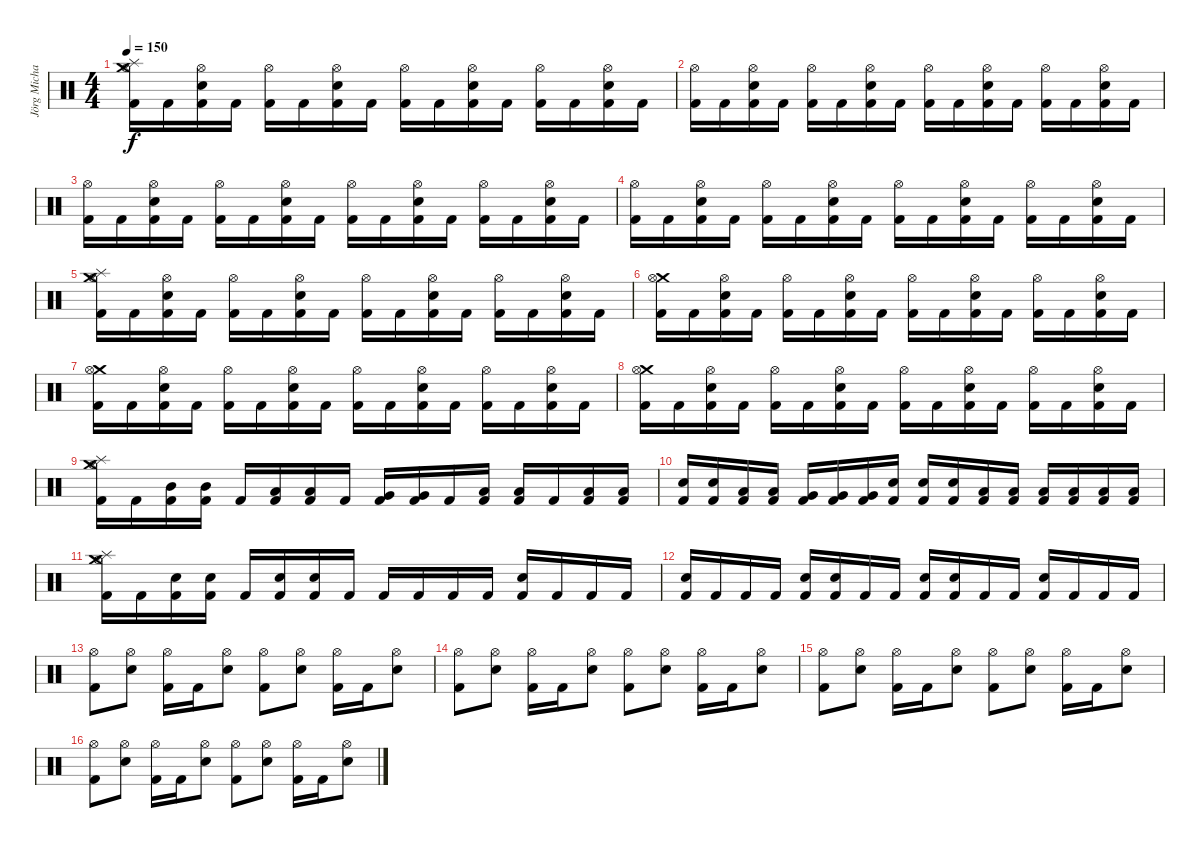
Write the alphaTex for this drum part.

\track ("Jörg Michael (Drums)" "Jörg Micha") {instrument percussion}
\staff {score}
\articulation defaults
\ts (4 4)
\tempo 150
\clef neutral
\ks c
("Hi-Hat (open)" "Splash (hit)" "Crash medium (hit)" "Kick (hit) 2").16{dy f} "Kick (hit) 2".16 ("Hi-Hat (open)" "Electric Snare (hit)" "Kick (hit) 2").16 "Kick (hit) 2".16 ("Hi-Hat (open)" "Kick (hit) 2").16 "Kick (hit) 2".16 ("Hi-Hat (open)" "Electric Snare (hit)" "Kick (hit) 2").16 "Kick (hit) 2".16 ("Hi-Hat (open)" "Kick (hit) 2").16 "Kick (hit) 2".16 ("Hi-Hat (open)" "Electric Snare (hit)" "Kick (hit) 2").16 "Kick (hit) 2".16 ("Hi-Hat (open)" "Kick (hit) 2").16 "Kick (hit) 2".16 ("Hi-Hat (open)" "Electric Snare (hit)" "Kick (hit) 2").16 "Kick (hit) 2".16 |
("Hi-Hat (open)" "Kick (hit) 2").16 "Kick (hit) 2".16 ("Hi-Hat (open)" "Electric Snare (hit)" "Kick (hit) 2").16 "Kick (hit) 2".16 ("Hi-Hat (open)" "Kick (hit) 2").16 "Kick (hit) 2".16 ("Hi-Hat (open)" "Electric Snare (hit)" "Kick (hit) 2").16 "Kick (hit) 2".16 ("Hi-Hat (open)" "Kick (hit) 2").16 "Kick (hit) 2".16 ("Hi-Hat (open)" "Electric Snare (hit)" "Kick (hit) 2").16 "Kick (hit) 2".16 ("Hi-Hat (open)" "Kick (hit) 2").16 "Kick (hit) 2".16 ("Hi-Hat (open)" "Electric Snare (hit)" "Kick (hit) 2").16 "Kick (hit) 2".16 |
("Hi-Hat (open)" "Kick (hit) 2").16 "Kick (hit) 2".16 ("Hi-Hat (open)" "Electric Snare (hit)" "Kick (hit) 2").16 "Kick (hit) 2".16 ("Hi-Hat (open)" "Kick (hit) 2").16 "Kick (hit) 2".16 ("Hi-Hat (open)" "Electric Snare (hit)" "Kick (hit) 2").16 "Kick (hit) 2".16 ("Hi-Hat (open)" "Kick (hit) 2").16 "Kick (hit) 2".16 ("Hi-Hat (open)" "Electric Snare (hit)" "Kick (hit) 2").16 "Kick (hit) 2".16 ("Hi-Hat (open)" "Kick (hit) 2").16 "Kick (hit) 2".16 ("Hi-Hat (open)" "Electric Snare (hit)" "Kick (hit) 2").16 "Kick (hit) 2".16 |
("Hi-Hat (open)" "Kick (hit) 2").16 "Kick (hit) 2".16 ("Hi-Hat (open)" "Electric Snare (hit)" "Kick (hit) 2").16 "Kick (hit) 2".16 ("Hi-Hat (open)" "Kick (hit) 2").16 "Kick (hit) 2".16 ("Hi-Hat (open)" "Electric Snare (hit)" "Kick (hit) 2").16 "Kick (hit) 2".16 ("Hi-Hat (open)" "Kick (hit) 2").16 "Kick (hit) 2".16 ("Hi-Hat (open)" "Electric Snare (hit)" "Kick (hit) 2").16 "Kick (hit) 2".16 ("Hi-Hat (open)" "Kick (hit) 2").16 "Kick (hit) 2".16 ("Hi-Hat (open)" "Electric Snare (hit)" "Kick (hit) 2").16 "Kick (hit) 2".16 |
("Hi-Hat (open)" "Splash (hit)" "Crash medium (hit)" "Kick (hit) 2").16 "Kick (hit) 2".16 ("Hi-Hat (open)" "Electric Snare (hit)" "Kick (hit) 2").16 "Kick (hit) 2".16 ("Hi-Hat (open)" "Kick (hit) 2").16 "Kick (hit) 2".16 ("Hi-Hat (open)" "Electric Snare (hit)" "Kick (hit) 2").16 "Kick (hit) 2".16 ("Hi-Hat (open)" "Kick (hit) 2").16 "Kick (hit) 2".16 ("Hi-Hat (open)" "Electric Snare (hit)" "Kick (hit) 2").16 "Kick (hit) 2".16 ("Hi-Hat (open)" "Kick (hit) 2").16 "Kick (hit) 2".16 ("Hi-Hat (open)" "Electric Snare (hit)" "Kick (hit) 2").16 "Kick (hit) 2".16 |
("Crash medium (hit)" "Hi-Hat (open)" "Kick (hit) 2").16 "Kick (hit) 2".16 ("Hi-Hat (open)" "Electric Snare (hit)" "Kick (hit) 2").16 "Kick (hit) 2".16 ("Hi-Hat (open)" "Kick (hit) 2").16 "Kick (hit) 2".16 ("Hi-Hat (open)" "Electric Snare (hit)" "Kick (hit) 2").16 "Kick (hit) 2".16 ("Hi-Hat (open)" "Kick (hit) 2").16 "Kick (hit) 2".16 ("Hi-Hat (open)" "Electric Snare (hit)" "Kick (hit) 2").16 "Kick (hit) 2".16 ("Hi-Hat (open)" "Kick (hit) 2").16 "Kick (hit) 2".16 ("Hi-Hat (open)" "Electric Snare (hit)" "Kick (hit) 2").16 "Kick (hit) 2".16 |
("Crash medium (hit)" "Hi-Hat (open)" "Kick (hit) 2").16 "Kick (hit) 2".16 ("Hi-Hat (open)" "Electric Snare (hit)" "Kick (hit) 2").16 "Kick (hit) 2".16 ("Hi-Hat (open)" "Kick (hit) 2").16 "Kick (hit) 2".16 ("Hi-Hat (open)" "Electric Snare (hit)" "Kick (hit) 2").16 "Kick (hit) 2".16 ("Hi-Hat (open)" "Kick (hit) 2").16 "Kick (hit) 2".16 ("Hi-Hat (open)" "Electric Snare (hit)" "Kick (hit) 2").16 "Kick (hit) 2".16 ("Hi-Hat (open)" "Kick (hit) 2").16 "Kick (hit) 2".16 ("Hi-Hat (open)" "Electric Snare (hit)" "Kick (hit) 2").16 "Kick (hit) 2".16 |
("Crash medium (hit)" "Hi-Hat (open)" "Kick (hit) 2").16 "Kick (hit) 2".16 ("Hi-Hat (open)" "Electric Snare (hit)" "Kick (hit) 2").16 "Kick (hit) 2".16 ("Hi-Hat (open)" "Kick (hit) 2").16 "Kick (hit) 2".16 ("Hi-Hat (open)" "Electric Snare (hit)" "Kick (hit) 2").16 "Kick (hit) 2".16 ("Hi-Hat (open)" "Kick (hit) 2").16 "Kick (hit) 2".16 ("Hi-Hat (open)" "Electric Snare (hit)" "Kick (hit) 2").16 "Kick (hit) 2".16 ("Hi-Hat (open)" "Kick (hit) 2").16 "Kick (hit) 2".16 ("Hi-Hat (open)" "Electric Snare (hit)" "Kick (hit) 2").16 "Kick (hit) 2".16 |
("Splash (hit)" "Hi-Hat (open)" "Crash medium (hit)" "Kick (hit) 2").16 "Kick (hit) 2".16 ("Mid Tom (hit)" "Kick (hit) 2").16 ("Mid Tom (hit)" "Kick (hit) 2").16 "Kick (hit) 2".16 ("Low Tom (hit)" "Kick (hit) 2").16 ("Low Tom (hit)" "Kick (hit) 2").16 "Kick (hit) 2".16 ("Very Low Tom (hit)" "Kick (hit) 2").16 ("Very Low Tom (hit)" "Kick (hit) 2").16 "Kick (hit) 2".16 ("Low Floor Tom (hit)" "Kick (hit) 2").16 ("Low Floor Tom (hit)" "Kick (hit) 2").16 "Kick (hit) 2".16 ("Low Floor Tom (hit)" "Kick (hit) 2").16 ("Low Floor Tom (hit)" "Kick (hit) 2").16 |
("Electric Snare (hit)" "Kick (hit) 2").16 ("Electric Snare (hit)" "Kick (hit) 2").16 ("Low Tom (hit)" "Kick (hit) 2").16 ("Low Tom (hit)" "Kick (hit) 2").16 ("Very Low Tom (hit)" "Kick (hit) 2").16 ("Very Low Tom (hit)" "Kick (hit) 2").16 ("Very Low Tom (hit)" "Kick (hit) 2").16 ("Electric Snare (hit)" "Kick (hit) 2").16 ("Electric Snare (hit)" "Kick (hit) 2").16 ("Electric Snare (hit)" "Kick (hit) 2").16 ("Low Floor Tom (hit)" "Kick (hit) 2").16 ("Low Floor Tom (hit)" "Kick (hit) 2").16 ("Low Floor Tom (hit)" "Kick (hit) 2").16 ("Low Floor Tom (hit)" "Kick (hit) 2").16 ("Low Floor Tom (hit)" "Kick (hit) 2").16 ("Low Floor Tom (hit)" "Kick (hit) 2").16 |
("Splash (hit)" "Hi-Hat (open)" "Crash medium (hit)" "Kick (hit) 2").16 "Kick (hit) 2".16 ("Electric Snare (hit)" "Kick (hit) 2").16 ("Electric Snare (hit)" "Kick (hit) 2").16 "Kick (hit) 2".16 ("Electric Snare (hit)" "Kick (hit) 2").16 ("Electric Snare (hit)" "Kick (hit) 2").16 "Kick (hit) 2".16 "Kick (hit) 2".16 "Kick (hit) 2".16 "Kick (hit) 2".16 "Kick (hit) 2".16 ("Electric Snare (hit)" "Kick (hit) 2").16 "Kick (hit) 2".16 "Kick (hit) 2".16 "Kick (hit) 2".16 |
("Electric Snare (hit)" "Kick (hit) 2").16 "Kick (hit) 2".16 "Kick (hit) 2".16 "Kick (hit) 2".16 ("Electric Snare (hit)" "Kick (hit) 2").16 ("Electric Snare (hit)" "Kick (hit) 2").16 "Kick (hit) 2".16 "Kick (hit) 2".16 ("Electric Snare (hit)" "Kick (hit) 2").16 ("Electric Snare (hit)" "Kick (hit) 2").16 "Kick (hit) 2".16 "Kick (hit) 2".16 ("Electric Snare (hit)" "Kick (hit) 2").16 "Kick (hit) 2".16 "Kick (hit) 2".16 "Kick (hit) 2".16 |
("Hi-Hat (open)" "Kick (hit) 2").8 ("Hi-Hat (open)" "Electric Snare (hit)").8 ("Hi-Hat (open)" "Kick (hit) 2").16 "Kick (hit) 2".16 ("Hi-Hat (open)" "Electric Snare (hit)").8 ("Hi-Hat (open)" "Kick (hit) 2").8 ("Hi-Hat (open)" "Electric Snare (hit)").8 ("Hi-Hat (open)" "Kick (hit) 2").16 "Kick (hit) 2".16 ("Hi-Hat (open)" "Electric Snare (hit)").8 |
("Hi-Hat (open)" "Kick (hit) 2").8 ("Hi-Hat (open)" "Electric Snare (hit)").8 ("Hi-Hat (open)" "Kick (hit) 2").16 "Kick (hit) 2".16 ("Hi-Hat (open)" "Electric Snare (hit)").8 ("Hi-Hat (open)" "Kick (hit) 2").8 ("Hi-Hat (open)" "Electric Snare (hit)").8 ("Hi-Hat (open)" "Kick (hit) 2").16 "Kick (hit) 2".16 ("Hi-Hat (open)" "Electric Snare (hit)").8 |
("Hi-Hat (open)" "Kick (hit) 2").8 ("Hi-Hat (open)" "Electric Snare (hit)").8 ("Hi-Hat (open)" "Kick (hit) 2").16 "Kick (hit) 2".16 ("Hi-Hat (open)" "Electric Snare (hit)").8 ("Hi-Hat (open)" "Kick (hit) 2").8 ("Hi-Hat (open)" "Electric Snare (hit)").8 ("Hi-Hat (open)" "Kick (hit) 2").16 "Kick (hit) 2".16 ("Hi-Hat (open)" "Electric Snare (hit)").8 |
("Hi-Hat (open)" "Kick (hit) 2").8 ("Hi-Hat (open)" "Electric Snare (hit)").8 ("Hi-Hat (open)" "Kick (hit) 2").16 "Kick (hit) 2".16 ("Hi-Hat (open)" "Electric Snare (hit)").8 ("Hi-Hat (open)" "Kick (hit) 2").8 ("Hi-Hat (open)" "Electric Snare (hit)").8 ("Hi-Hat (open)" "Kick (hit) 2").16 "Kick (hit) 2".16 ("Hi-Hat (open)" "Electric Snare (hit)").8
